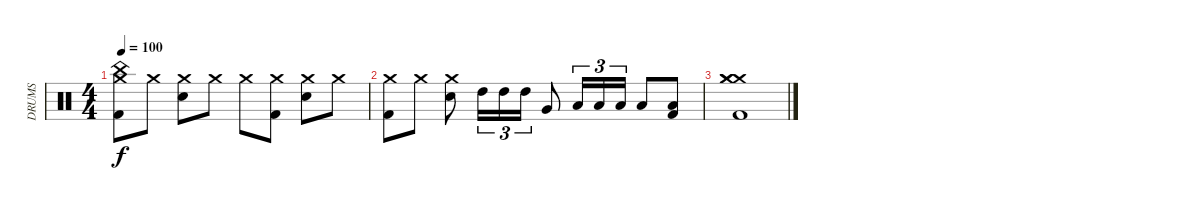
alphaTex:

\track ("DRUMS" "DRUMS") {instrument percussion}
\staff {score}
\articulation defaults
\ts (4 4)
\tempo 100
\clef neutral
\ks c
("Crash medium (hit)" "China (hit)" "Kick (hit) 2").8{dy f} "Crash medium (hit)".8 ("Crash medium (hit)" "Electric Snare (hit)").8 "Crash medium (hit)".8 "Crash medium (hit)".8 ("Crash medium (hit)" "Kick (hit) 2").8 ("Crash medium (hit)" "Electric Snare (hit)").8 "Crash medium (hit)".8 |
("Crash medium (hit)" "Kick (hit) 2").8 "Crash medium (hit)".8 ("Crash medium (hit)" "Electric Snare (hit)").8 "High Tom (hit)".16{tu (3 2)} "High Tom (hit)".16{tu (3 2)} "High Tom (hit)".16{tu (3 2)} "Very Low Tom (hit)".8 "Low Tom (hit)".16{tu (3 2)} "Low Tom (hit)".16{tu (3 2)} "Low Tom (hit)".16{tu (3 2)} "Low Floor Tom (hit)".8 ("Low Floor Tom (hit)" "Kick (hit) 2").8 |
("Crash medium (hit)" "Crash medium (hit)" "Crash medium (hit)" "Kick (hit) 2").1
